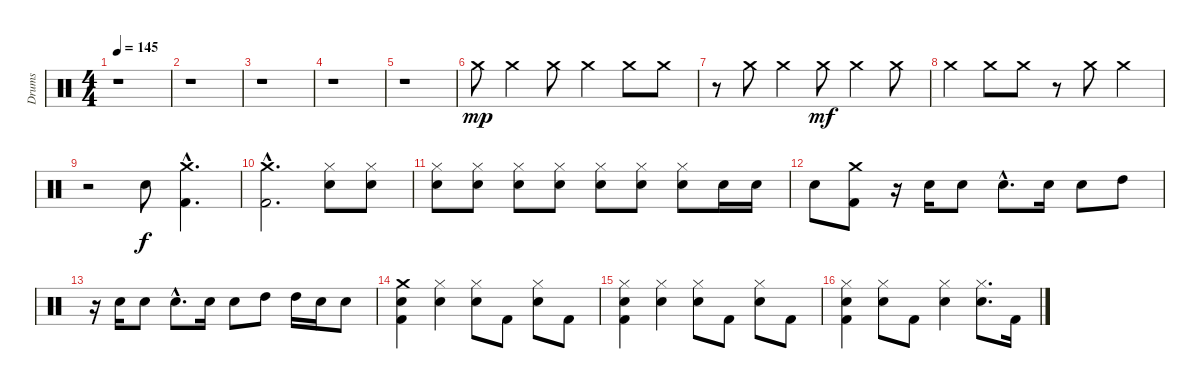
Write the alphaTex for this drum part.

\track ("Drums" "Drums") {instrument percussion}
\staff {score}
\articulation defaults
\ts (4 4)
\tempo 145
\clef neutral
\ks c
r.1{dy f} |
r.1 |
r.1 |
r.1 |
r.1 |
"Crash medium (hit)".8{dy mp} "Crash medium (hit)".4 "Crash medium (hit)".8 "Crash medium (hit)".4 "Crash medium (hit)".8 "Crash medium (hit)".8 |
r.8 "Crash medium (hit)".8 "Crash medium (hit)".4 "Crash medium (hit)".8{dy mf} "Crash medium (hit)".4 "Crash medium (hit)".8 |
"Crash medium (hit)".4 "Crash medium (hit)".8 "Crash medium (hit)".8 r.8 "Crash medium (hit)".8 "Crash medium (hit)".4 |
r.2 "Snare (hit) 2".8{dy f} ("Crash medium (hit)"{hac} "Kick (hit) 2"{hac}).4{d} |
("Kick (hit) 2" "Crash medium (hit)"{hac}).2{d} ("Snare (hit) 2" "Hi-Hat (closed)").8 ("Snare (hit) 2" "Hi-Hat (closed)").8 |
("Hi-Hat (closed)" "Snare (hit) 2").8 ("Hi-Hat (closed)" "Snare (hit) 2").8 ("Hi-Hat (closed)" "Snare (hit) 2").8 ("Hi-Hat (closed)" "Snare (hit) 2").8 ("Hi-Hat (closed)" "Snare (hit) 2").8 ("Hi-Hat (closed)" "Snare (hit) 2").8 ("Hi-Hat (closed)" "Snare (hit) 2").8 "Snare (hit) 2".16 "Snare (hit) 2".16 |
"Snare (hit) 2".8 ("Crash medium (hit)" "Kick (hit) 2").8 r.16 "Snare (hit) 2".16 "Snare (hit) 2".8 "Snare (hit) 2"{hac}.8{d} "Snare (hit) 2".16 "Snare (hit) 2".8 "High Tom (hit)".8 |
r.16 "Snare (hit) 2".16 "Snare (hit) 2".8 "Snare (hit) 2"{hac}.8{d} "Snare (hit) 2".16 "Snare (hit) 2".8 "High Tom (hit)".8 "High Tom (hit)".16 "Snare (hit) 2".16 "Snare (hit) 2".8 |
("Crash medium (hit)" "Snare (hit) 2" "Kick (hit) 2").4 ("Hi-Hat (closed)" "Snare (hit) 2").4 ("Hi-Hat (closed)" "Snare (hit) 2").8 "Kick (hit) 2".8 ("Hi-Hat (closed)" "Snare (hit) 2").8 "Kick (hit) 2".8 |
("Hi-Hat (closed)" "Snare (hit) 2" "Kick (hit) 2").4 ("Hi-Hat (closed)" "Snare (hit) 2").4 ("Hi-Hat (closed)" "Snare (hit) 2").8 "Kick (hit) 2".8 ("Hi-Hat (closed)" "Snare (hit) 2").8 "Kick (hit) 2".8 |
("Hi-Hat (closed)" "Snare (hit) 2" "Kick (hit) 2").4 ("Hi-Hat (closed)" "Snare (hit) 2").8 "Kick (hit) 2".8 ("Hi-Hat (closed)" "Snare (hit) 2").4 ("Hi-Hat (closed)" "Snare (hit) 2").8{d} "Kick (hit) 2".16
